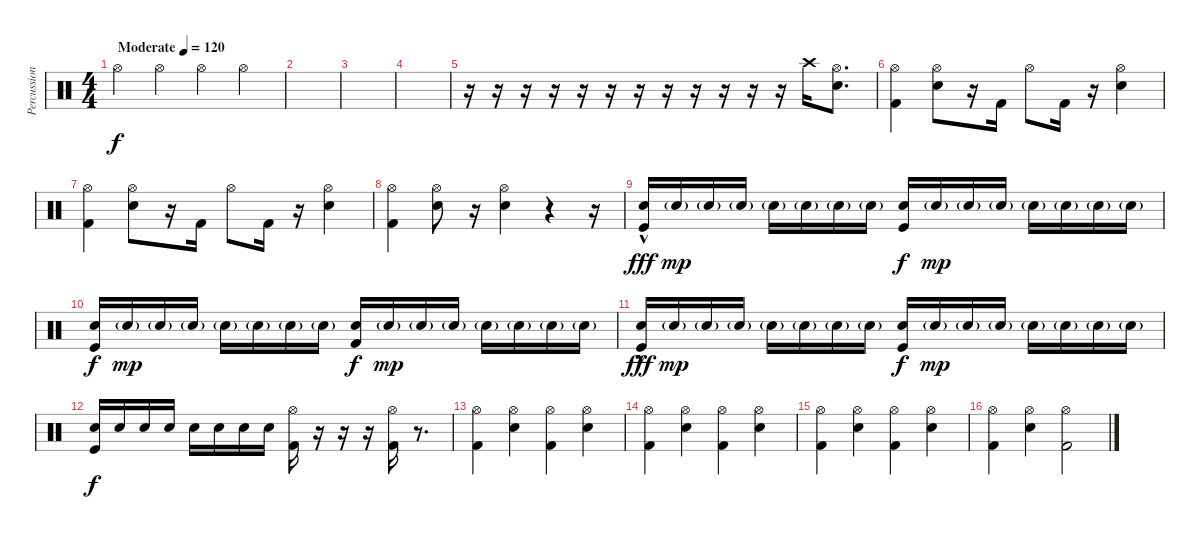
\track ("Percussion" "Percussion") {instrument percussion}
\staff {score}
\articulation defaults
\ts (4 4)
\tempo (120 "Moderate")
\clef neutral
\ks c "Hi-Hat (open)".4{dy f} "Hi-Hat (open)".4 "Hi-Hat (open)".4 "Hi-Hat (open)".4
|
|
|
|
r.16 r.16 r.16 r.16 r.16 r.16 r.16 r.16 r.16 r.16 r.16 r.16 "Crash high (hit)".16 ("Hi-Hat (open)" "Electric Snare (hit)").8{d} |
("Kick (hit) 2" "Hi-Hat (open)").4 ("Electric Snare (hit)" "Hi-Hat (open)").8 r.16 "Kick (hit) 2".16 "Hi-Hat (open)".8 "Kick (hit) 2".16 r.16 ("Electric Snare (hit)" "Hi-Hat (open)").4 |
("Kick (hit) 2" "Hi-Hat (open)").4 ("Electric Snare (hit)" "Hi-Hat (open)").8 r.16 "Kick (hit) 2".16 "Hi-Hat (open)".8 "Kick (hit) 2".16 r.16 ("Electric Snare (hit)" "Hi-Hat (open)").4 |
("Kick (hit) 2" "Hi-Hat (open)").4 ("Electric Snare (hit)" "Hi-Hat (open)").8 r.16 ("Electric Snare (hit)" "Hi-Hat (open)").4 r.4 r.16 |
("Electric Snare (hit)"{hac} "Kick (hit)").16{dy fff} "Electric Snare (hit)"{g}.16{dy mp} "Electric Snare (hit)"{g}.16 "Electric Snare (hit)"{g}.16 "Electric Snare (hit)"{g}.16 "Electric Snare (hit)"{g}.16 "Electric Snare (hit)"{g}.16 "Electric Snare (hit)"{g}.16 ("Electric Snare (hit)" "Kick (hit)").16{dy f} "Electric Snare (hit)"{g}.16{dy mp} "Electric Snare (hit)"{g}.16 "Electric Snare (hit)"{g}.16 "Electric Snare (hit)"{g}.16 "Electric Snare (hit)"{g}.16 "Electric Snare (hit)"{g}.16 "Electric Snare (hit)"{g}.16 |
("Electric Snare (hit)" "Kick (hit)").16{dy f} "Electric Snare (hit)"{g}.16{dy mp} "Electric Snare (hit)"{g}.16 "Electric Snare (hit)"{g}.16 "Electric Snare (hit)"{g}.16 "Electric Snare (hit)"{g}.16 "Electric Snare (hit)"{g}.16 "Electric Snare (hit)"{g}.16 ("Electric Snare (hit)" "Kick (hit) 2").16{dy f} "Electric Snare (hit)"{g}.16{dy mp} "Electric Snare (hit)"{g}.16 "Electric Snare (hit)"{g}.16 "Electric Snare (hit)"{g}.16 "Electric Snare (hit)"{g}.16 "Electric Snare (hit)"{g}.16 "Electric Snare (hit)"{g}.16 |
("Electric Snare (hit)"{hac} "Kick (hit)").16{dy fff} "Electric Snare (hit)"{g}.16{dy mp} "Electric Snare (hit)"{g}.16 "Electric Snare (hit)"{g}.16 "Electric Snare (hit)"{g}.16 "Electric Snare (hit)"{g}.16 "Electric Snare (hit)"{g}.16 "Electric Snare (hit)"{g}.16 ("Electric Snare (hit)" "Kick (hit)").16{dy f} "Electric Snare (hit)"{g}.16{dy mp} "Electric Snare (hit)"{g}.16 "Electric Snare (hit)"{g}.16 "Electric Snare (hit)"{g}.16 "Electric Snare (hit)"{g}.16 "Electric Snare (hit)"{g}.16 "Electric Snare (hit)"{g}.16 |
("Electric Snare (hit)" "Kick (hit)").16{dy f} "Snare (hit) 2".16 "Snare (hit) 2".16 "Snare (hit) 2".16 "Snare (hit) 2".16 "Snare (hit) 2".16 "Snare (hit) 2".16 "Snare (hit) 2".16 ("Hi-Hat (open)" "Kick (hit) 2").16 r.16 r.16 r.16 ("Hi-Hat (open)" "Kick (hit) 2").16 r.8{d} |
("Kick (hit) 2" "Hi-Hat (open)").4 ("Electric Snare (hit)" "Hi-Hat (open)").4 ("Kick (hit) 2" "Hi-Hat (open)").4 ("Electric Snare (hit)" "Hi-Hat (open)").4 |
("Kick (hit) 2" "Hi-Hat (open)").4 ("Electric Snare (hit)" "Hi-Hat (open)").4 ("Kick (hit) 2" "Hi-Hat (open)").4 ("Electric Snare (hit)" "Hi-Hat (open)").4 |
("Kick (hit) 2" "Hi-Hat (open)").4 ("Electric Snare (hit)" "Hi-Hat (open)").4 ("Kick (hit) 2" "Hi-Hat (open)").4 ("Electric Snare (hit)" "Hi-Hat (open)").4 |
("Kick (hit) 2" "Hi-Hat (open)").4 ("Electric Snare (hit)" "Hi-Hat (open)").4 ("Kick (hit) 2" "Hi-Hat (open)").2
